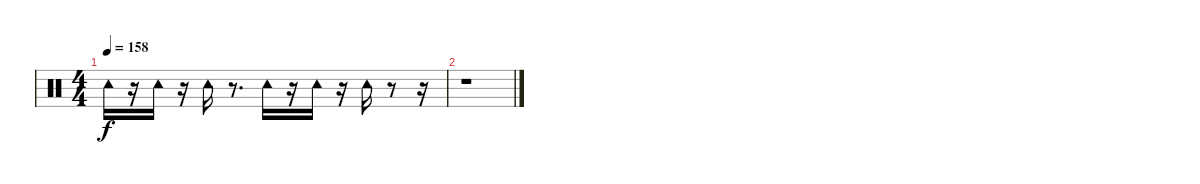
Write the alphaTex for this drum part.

\track "" {instrument percussion}
\staff {score}
\articulation defaults
\ts (4 4)
\tempo 158
\clef neutral
\ks c "Tambourine (hit)".16{dy f}
r.16 "Tambourine (hit)".16 r.16 "Tambourine (hit)".16 r.8{d} "Tambourine (hit)".16 r.16 "Tambourine (hit)".16 r.16 "Tambourine (hit)".16 r.8 r.16 |
r.1
